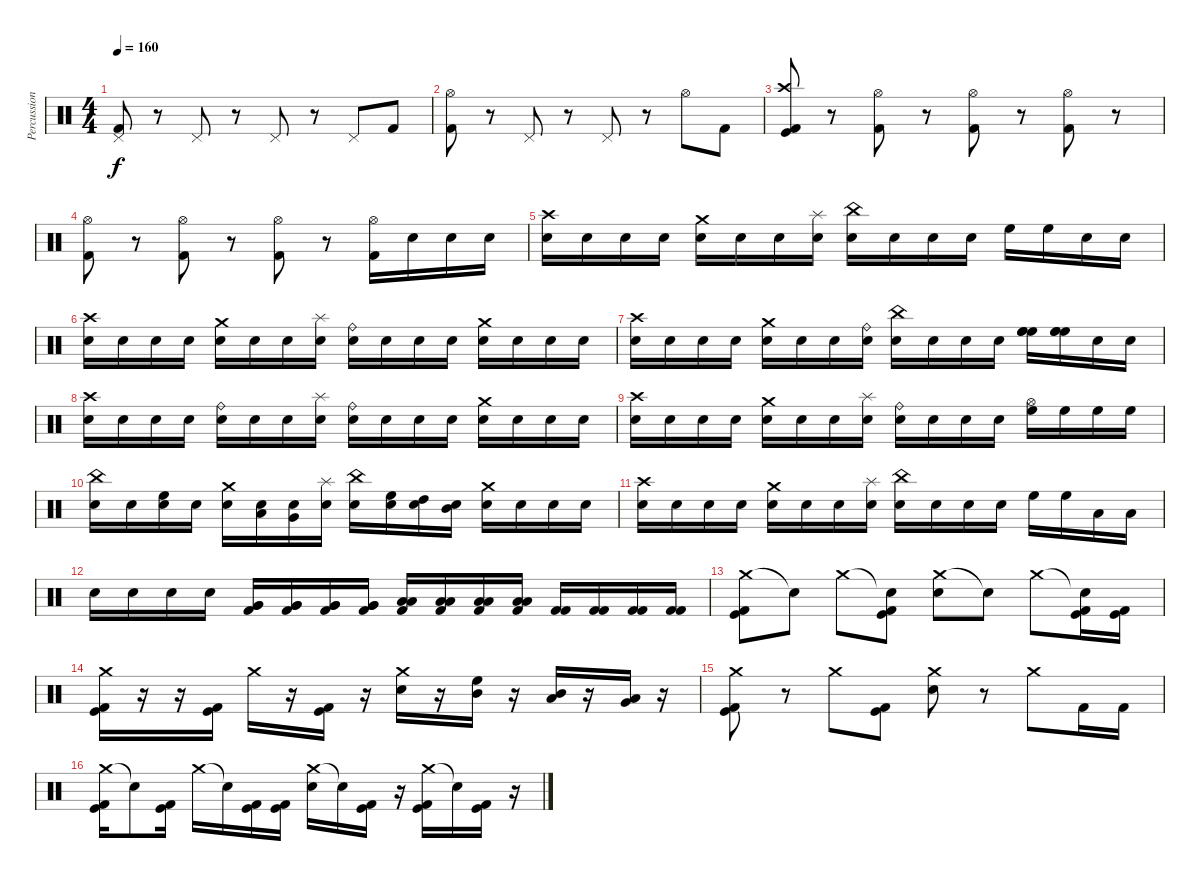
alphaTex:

\track ("Percussion" "Percussion") {instrument percussion}
\staff {score}
\articulation defaults
\ts (4 4)
\tempo 160
\clef neutral
\ks c
("Pedal Hi-Hat (hit)" "Kick (hit) 2").8{dy f} r.8 "Pedal Hi-Hat (hit)".8 r.8 "Pedal Hi-Hat (hit)".8 r.8 "Pedal Hi-Hat (hit)".8 "Kick (hit) 2".8 |
("Hi-Hat (open)" "Kick (hit) 2").8 r.8 "Pedal Hi-Hat (hit)".8 r.8 "Pedal Hi-Hat (hit)".8 r.8 "Hi-Hat (open)".8 "Kick (hit) 2".8 |
("Crash high (hit)" "Kick (hit)" "Kick (hit) 2").8 r.8 ("Hi-Hat (open)" "Kick (hit) 2").8 r.8 ("Hi-Hat (open)" "Kick (hit) 2").8 r.8 ("Hi-Hat (open)" "Kick (hit) 2").8 r.8 |
("Hi-Hat (open)" "Kick (hit) 2").8 r.8 ("Hi-Hat (open)" "Kick (hit) 2").8 r.8 ("Hi-Hat (open)" "Kick (hit) 2").8 r.8 ("Hi-Hat (open)" "Kick (hit) 2").16 "Snare (hit) 2".16 "Snare (hit) 2".16 "Snare (hit) 2".16 |
("Crash high (hit)" "Snare (hit) 2").16 "Snare (hit) 2".16 "Snare (hit) 2".16 "Snare (hit) 2".16 ("Crash medium (hit)" "Snare (hit) 2").16 "Snare (hit) 2".16 "Snare (hit) 2".16 ("Splash (hit)" "Snare (hit) 2").16 ("China (hit)" "Snare (hit) 2").16 "Snare (hit) 2".16 "Snare (hit) 2".16 "Snare (hit) 2".16 "High Floor Tom (hit)".16 "High Floor Tom (hit)".16 "Snare (hit) 2".16 "Snare (hit) 2".16 |
("Crash high (hit)" "Snare (hit) 2").16 "Snare (hit) 2".16 "Snare (hit) 2".16 "Snare (hit) 2".16 ("Crash medium (hit)" "Snare (hit) 2").16 "Snare (hit) 2".16 "Snare (hit) 2".16 ("Splash (hit)" "Snare (hit) 2").16 ("Ride (bell)" "Snare (hit) 2").16 "Snare (hit) 2".16 "Snare (hit) 2".16 "Snare (hit) 2".16 ("Crash medium (hit)" "Snare (hit) 2").16 "Snare (hit) 2".16 "Snare (hit) 2".16 "Snare (hit) 2".16 |
("Crash high (hit)" "Snare (hit) 2").16 "Snare (hit) 2".16 "Snare (hit) 2".16 "Snare (hit) 2".16 ("Crash medium (hit)" "Snare (hit) 2").16 "Snare (hit) 2".16 "Snare (hit) 2".16 ("Ride (bell)" "Snare (hit) 2").16 ("China (hit)" "Snare (hit) 2").16 "Snare (hit) 2".16 "Snare (hit) 2".16 "Snare (hit) 2".16 ("High Floor Tom (hit)" "High Floor Tom (hit)" "High Floor Tom (hit)").16 ("High Floor Tom (hit)" "High Floor Tom (hit)" "High Floor Tom (hit)").16 "Snare (hit) 2".16 "Snare (hit) 2".16 |
("Crash high (hit)" "Snare (hit) 2").16 "Snare (hit) 2".16 "Snare (hit) 2".16 "Snare (hit) 2".16 ("Ride (bell)" "Snare (hit) 2").16 "Snare (hit) 2".16 "Snare (hit) 2".16 ("Splash (hit)" "Snare (hit) 2").16 ("Ride (bell)" "Snare (hit) 2").16 "Snare (hit) 2".16 "Snare (hit) 2".16 "Snare (hit) 2".16 ("Crash medium (hit)" "Snare (hit) 2").16 "Snare (hit) 2".16 "Snare (hit) 2".16 "Snare (hit) 2".16 |
("Crash high (hit)" "Snare (hit) 2").16 "Snare (hit) 2".16 "Snare (hit) 2".16 "Snare (hit) 2".16 ("Crash medium (hit)" "Snare (hit) 2").16 "Snare (hit) 2".16 "Snare (hit) 2".16 ("Splash (hit)" "Snare (hit) 2").16 ("Ride (bell)" "Snare (hit) 2").16 "Snare (hit) 2".16 "Snare (hit) 2".16 "Snare (hit) 2".16 ("Hi-Hat (open)" "High Floor Tom (hit)").16 "High Floor Tom (hit)".16 "High Floor Tom (hit)".16 "High Floor Tom (hit)".16 |
("China (hit)" "Snare (hit) 2").16 "Snare (hit) 2".16 ("High Floor Tom (hit)" "Snare (hit) 2").16 "Snare (hit) 2".16 ("Crash medium (hit)" "Snare (hit) 2").16 ("Low Tom (hit)" "Snare (hit) 2").16 ("Very Low Tom (hit)" "Snare (hit) 2").16 ("Splash (hit)" "Snare (hit) 2").16 ("China (hit)" "Snare (hit) 2").16 ("High Floor Tom (hit)" "Snare (hit) 2").16 ("High Tom (hit)" "Snare (hit) 2").16 ("Mid Tom (hit)" "Snare (hit) 2").16 ("Crash medium (hit)" "Snare (hit) 2").16 "Snare (hit) 2".16 "Snare (hit) 2".16 "Snare (hit) 2".16 |
("Crash high (hit)" "Snare (hit) 2").16 "Snare (hit) 2".16 "Snare (hit) 2".16 "Snare (hit) 2".16 ("Crash medium (hit)" "Snare (hit) 2").16 "Snare (hit) 2".16 "Snare (hit) 2".16 ("Splash (hit)" "Snare (hit) 2").16 ("China (hit)" "Snare (hit) 2").16 "Snare (hit) 2".16 "Snare (hit) 2".16 "Snare (hit) 2".16 "High Floor Tom (hit)".16 "High Floor Tom (hit)".16 "Low Tom (hit)".16 "Low Tom (hit)".16 |
"Snare (hit) 2".16 "Snare (hit) 2".16 "Snare (hit) 2".16 "Snare (hit) 2".16 ("Very Low Tom (hit)" "Very Low Tom (hit)" "Kick (hit) 2").16 ("Very Low Tom (hit)" "Very Low Tom (hit)" "Kick (hit) 2").16 ("Very Low Tom (hit)" "Very Low Tom (hit)" "Kick (hit) 2").16 ("Very Low Tom (hit)" "Very Low Tom (hit)" "Kick (hit) 2").16 ("Low Floor Tom (hit)" "Low Floor Tom (hit)" "Kick (hit) 2").16 ("Low Floor Tom (hit)" "Low Floor Tom (hit)" "Kick (hit) 2").16 ("Low Floor Tom (hit)" "Low Floor Tom (hit)" "Kick (hit) 2").16 ("Low Floor Tom (hit)" "Low Floor Tom (hit)" "Kick (hit) 2").16 ("Kick (hit) 2" "Kick (hit) 2").16 ("Kick (hit) 2" "Kick (hit) 2").16 ("Kick (hit) 2" "Kick (hit) 2").16 ("Kick (hit) 2" "Kick (hit) 2").16 |
("Crash medium (hit)" "Kick (hit)" "Kick (hit) 2").8 "Snare (hit)"{t}.8 "Crash medium (hit)".8 ("Snare (hit)"{t} "Kick (hit)" "Kick (hit) 2").8 ("Crash medium (hit)" "Electric Snare (hit)").8 "Snare (hit)"{t}.8 "Crash medium (hit)".8 ("Snare (hit)"{t} "Kick (hit)" "Kick (hit) 2").16 ("Kick (hit)" "Kick (hit) 2").16 |
("Crash medium (hit)" "Kick (hit)" "Kick (hit) 2").16 r.16 r.16 ("Kick (hit)" "Kick (hit) 2").16 "Crash medium (hit)".16 r.16 ("Kick (hit)" "Kick (hit) 2").16 r.16 ("Crash medium (hit)" "Electric Snare (hit)").16 r.16 ("High Floor Tom (hit)" "Mid Tom (hit)").16 r.16 ("Mid Tom (hit)" "Low Tom (hit)").16 r.16 ("Low Tom (hit)" "Very Low Tom (hit)").16 r.16 |
("Crash medium (hit)" "Kick (hit)" "Kick (hit) 2").8 r.8 "Crash medium (hit)".8 ("Kick (hit)" "Kick (hit) 2").8 ("Crash medium (hit)" "Electric Snare (hit)").8 r.8 "Crash medium (hit)".8 "Kick (hit) 2".16 "Kick (hit) 2".16 |
("Crash medium (hit)" "Kick (hit)" "Kick (hit) 2").16 "Snare (hit)"{t}.8 ("Kick (hit)" "Kick (hit) 2").16 "Crash medium (hit)".16 "Snare (hit)"{t}.16 ("Kick (hit)" "Kick (hit) 2").16 ("Kick (hit)" "Kick (hit) 2").16 ("Crash medium (hit)" "Electric Snare (hit)").16 "Snare (hit)"{t}.16 ("Kick (hit)" "Kick (hit) 2").16 r.16 ("Crash medium (hit)" "Kick (hit)" "Kick (hit) 2").16 "Snare (hit)"{t}.16 ("Kick (hit)" "Kick (hit) 2").16 r.16
